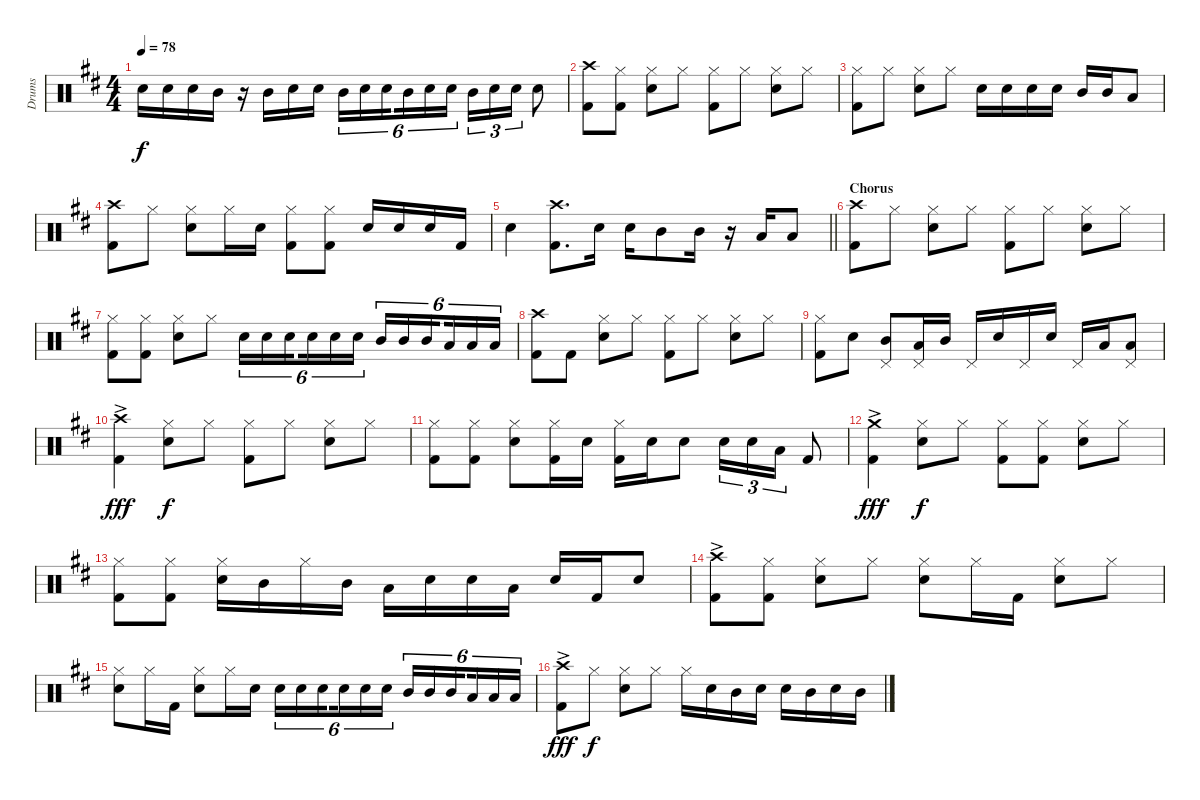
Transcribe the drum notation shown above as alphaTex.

\track ("Drums" "Drums") {instrument percussion}
\staff {score}
\articulation defaults
\ts (4 4)
\tempo 78
\clef neutral
\ks d "Electric Snare (hit)".16{dy f} "Electric Snare (hit)".16 "Electric Snare (hit)".16 "Mid Tom (hit)".16
r.16 "Mid Tom (hit)".16 "Electric Snare (hit)".16 "Electric Snare (hit)".16 "Mid Tom (hit)".16{tu (6 4)} "Electric Snare (hit)".16{tu (6 4)} "Electric Snare (hit)".16{tu (6 4) beam splitsecondary} "Mid Tom (hit)".16{tu (6 4)} "Electric Snare (hit)".16{tu (6 4)} "Electric Snare (hit)".16{tu (6 4)} "Mid Tom (hit)".16{tu (3 2)} "Electric Snare (hit)".16{tu (3 2)} "Electric Snare (hit)".16{tu (3 2)} "Electric Snare (hit)".8 |
("Crash high (hit)" "Kick (hit) 2").8 ("Hi-Hat (closed)" "Kick (hit) 2").8 ("Hi-Hat (closed)" "Electric Snare (hit)").8 "Hi-Hat (closed)".8 ("Hi-Hat (closed)" "Kick (hit) 2").8 "Hi-Hat (closed)".8 ("Hi-Hat (closed)" "Electric Snare (hit)").8 "Hi-Hat (closed)".8 |
("Hi-Hat (closed)" "Kick (hit) 2").8 "Hi-Hat (closed)".8 ("Hi-Hat (closed)" "Electric Snare (hit)").8 "Hi-Hat (closed)".8 "Electric Snare (hit)".16 "Electric Snare (hit)".16 "Electric Snare (hit)".16 "Electric Snare (hit)".16 "Mid Tom (hit)".16 "Mid Tom (hit)".16 "Low Tom (hit)".8 |
("Crash high (hit)" "Kick (hit) 2").8 "Hi-Hat (closed)".8 ("Hi-Hat (closed)" "Electric Snare (hit)").8 "Hi-Hat (closed)".16 "Electric Snare (hit)".16 ("Hi-Hat (closed)" "Kick (hit) 2").8 ("Hi-Hat (closed)" "Kick (hit) 2").8 "Electric Snare (hit)".16 "Electric Snare (hit)".16 "Electric Snare (hit)".16 "Kick (hit) 2".16 |
\barLineRight lightlight "Electric Snare (hit)".4
("Crash high (hit)" "Kick (hit) 2").8{d} "Electric Snare (hit)".16 "Electric Snare (hit)".16 "Mid Tom (hit)".8 "Mid Tom (hit)".16 r.16 "Low Tom (hit)".16 "Low Tom (hit)".8 |
\section ("" "Chorus")
("Crash high (hit)" "Kick (hit) 2").8 "Hi-Hat (closed)".8 ("Hi-Hat (closed)" "Electric Snare (hit)").8 "Hi-Hat (closed)".8 ("Hi-Hat (closed)" "Kick (hit) 2").8 "Hi-Hat (closed)".8 ("Hi-Hat (closed)" "Electric Snare (hit)").8 "Hi-Hat (closed)".8 |
("Hi-Hat (closed)" "Kick (hit) 2").8 ("Hi-Hat (closed)" "Kick (hit) 2").8 ("Hi-Hat (closed)" "Electric Snare (hit)").8 "Hi-Hat (closed)".8 "Electric Snare (hit)".16{tu (6 4)} "Electric Snare (hit)".16{tu (6 4)} "Electric Snare (hit)".16{tu (6 4) beam splitsecondary} "Electric Snare (hit)".16{tu (6 4)} "Electric Snare (hit)".16{tu (6 4)} "Electric Snare (hit)".16{tu (6 4)} "Mid Tom (hit)".16{tu (6 4)} "Mid Tom (hit)".16{tu (6 4)} "Mid Tom (hit)".16{tu (6 4) beam splitsecondary} "Low Tom (hit)".16{tu (6 4)} "Low Tom (hit)".16{tu (6 4)} "Low Tom (hit)".16{tu (6 4)} |
("Crash high (hit)" "Kick (hit) 2").8 "Kick (hit) 2".8 ("Hi-Hat (closed)" "Electric Snare (hit)").8 "Hi-Hat (closed)".8 ("Hi-Hat (closed)" "Kick (hit) 2").8 "Hi-Hat (closed)".8 ("Hi-Hat (closed)" "Electric Snare (hit)").8 "Hi-Hat (closed)".8 |
("Hi-Hat (closed)" "Kick (hit) 2").8 "Electric Snare (hit)".8 ("Pedal Hi-Hat (hit)" "Mid Tom (hit)").8 ("Pedal Hi-Hat (hit)" "Low Tom (hit)").16 "Mid Tom (hit)".16 "Pedal Hi-Hat (hit)".16 "Electric Snare (hit)".16 "Pedal Hi-Hat (hit)".16 "Electric Snare (hit)".16 "Pedal Hi-Hat (hit)".16 "Low Tom (hit)".16 ("Pedal Hi-Hat (hit)" "Low Tom (hit)").8 |
("Crash high (hit)"{ac} "Kick (hit) 2").4{dy fff} ("Hi-Hat (closed)" "Electric Snare (hit)").8{dy f} "Hi-Hat (closed)".8 ("Hi-Hat (closed)" "Kick (hit) 2").8 "Hi-Hat (closed)".8 ("Hi-Hat (closed)" "Electric Snare (hit)").8 "Hi-Hat (closed)".8 |
("Hi-Hat (closed)" "Kick (hit) 2").8 ("Hi-Hat (closed)" "Kick (hit) 2").8 ("Hi-Hat (closed)" "Electric Snare (hit)").8 ("Hi-Hat (closed)" "Kick (hit) 2").16 "Electric Snare (hit)".16 ("Hi-Hat (closed)" "Kick (hit) 2").16 "Electric Snare (hit)".16 "Electric Snare (hit)".8 "Electric Snare (hit)".16{tu (3 2)} "Electric Snare (hit)".16{tu (3 2)} "Low Tom (hit)".16{tu (3 2)} "Kick (hit) 2".8 |
("Crash medium (hit)"{ac} "Kick (hit) 2").4{dy fff} ("Hi-Hat (closed)" "Electric Snare (hit)").8{dy f} "Hi-Hat (closed)".8 ("Hi-Hat (closed)" "Kick (hit) 2").8 ("Hi-Hat (closed)" "Kick (hit) 2").8 ("Hi-Hat (closed)" "Electric Snare (hit)").8 "Hi-Hat (closed)".8 |
("Hi-Hat (closed)" "Kick (hit) 2").8 ("Hi-Hat (closed)" "Kick (hit) 2").8 ("Hi-Hat (closed)" "Electric Snare (hit)").16 "Mid Tom (hit)".16 "Hi-Hat (closed)".16 "Mid Tom (hit)".16 "Low Tom (hit)".16 "Electric Snare (hit)".16 "Electric Snare (hit)".16 "Low Tom (hit)".16 "Electric Snare (hit)".16 "Kick (hit) 2".16 "Electric Snare (hit)".8 |
("Crash high (hit)"{ac} "Kick (hit) 2").8 ("Hi-Hat (closed)" "Kick (hit) 2").8 ("Hi-Hat (closed)" "Electric Snare (hit)").8 "Hi-Hat (closed)".8 ("Hi-Hat (closed)" "Electric Snare (hit)").8 "Hi-Hat (closed)".16 "Kick (hit) 2".16 ("Hi-Hat (closed)" "Electric Snare (hit)").8 "Hi-Hat (closed)".8 |
("Hi-Hat (closed)" "Electric Snare (hit)").8 "Hi-Hat (closed)".16 "Kick (hit) 2".16 ("Hi-Hat (closed)" "Electric Snare (hit)").8 "Hi-Hat (closed)".16 "Electric Snare (hit)".16 "Electric Snare (hit)".16{tu (6 4)} "Electric Snare (hit)".16{tu (6 4)} "Electric Snare (hit)".16{tu (6 4) beam splitsecondary} "Electric Snare (hit)".16{tu (6 4)} "Electric Snare (hit)".16{tu (6 4)} "Electric Snare (hit)".16{tu (6 4)} "Mid Tom (hit)".16{tu (6 4)} "Mid Tom (hit)".16{tu (6 4)} "Mid Tom (hit)".16{tu (6 4) beam splitsecondary} "Low Tom (hit)".16{tu (6 4)} "Low Tom (hit)".16{tu (6 4)} "Low Tom (hit)".16{tu (6 4)} |
("Crash high (hit)"{ac} "Kick (hit) 2").8{dy fff} "Hi-Hat (closed)".8{dy f} ("Hi-Hat (closed)" "Electric Snare (hit)").8 "Hi-Hat (closed)".8 "Hi-Hat (closed)".16 "Electric Snare (hit)".16 "Mid Tom (hit)".16 "Electric Snare (hit)".16 "Electric Snare (hit)".16 "Mid Tom (hit)".16 "Electric Snare (hit)".16 "Mid Tom (hit)".16
